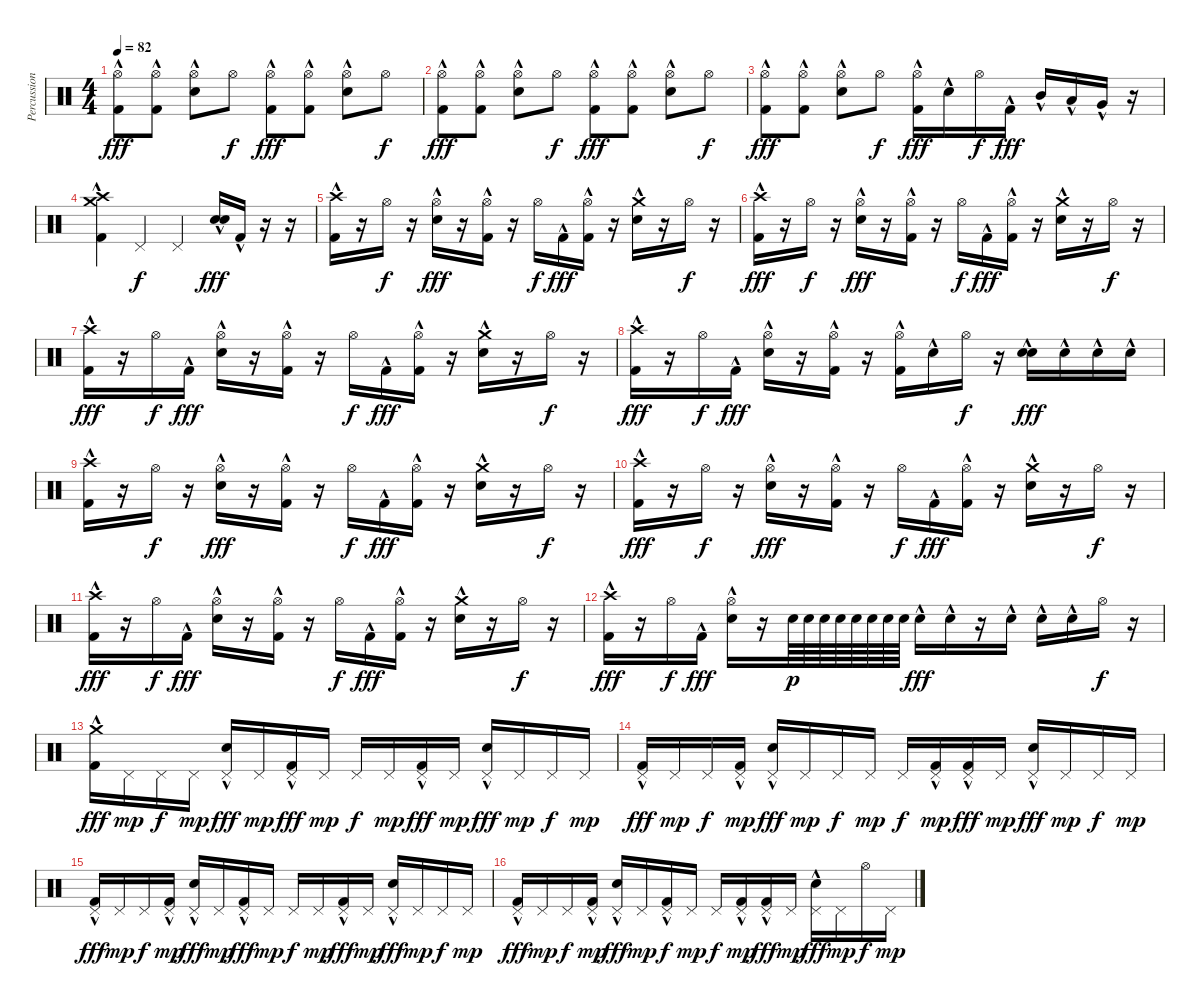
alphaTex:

\track ("Percussion" "Percussion") {instrument percussion}
\staff {score}
\articulation defaults
\ts (4 4)
\tempo 82
\clef neutral
\ks c
("Kick (hit) 2"{hac} "Hi-Hat (open)").8{dy fff} ("Kick (hit) 2"{hac} "Hi-Hat (open)").8 ("Electric Snare (hit)"{hac} "Hi-Hat (open)").8 "Hi-Hat (open)".8{dy f} ("Kick (hit) 2"{hac} "Hi-Hat (open)").8{dy fff} ("Kick (hit) 2"{hac} "Hi-Hat (open)").8 ("Electric Snare (hit)"{hac} "Hi-Hat (open)").8 "Hi-Hat (open)".8{dy f} |
("Kick (hit) 2"{hac} "Hi-Hat (open)").8{dy fff} ("Kick (hit) 2"{hac} "Hi-Hat (open)").8 ("Electric Snare (hit)"{hac} "Hi-Hat (open)").8 "Hi-Hat (open)".8{dy f} ("Kick (hit) 2"{hac} "Hi-Hat (open)").8{dy fff} ("Kick (hit) 2"{hac} "Hi-Hat (open)").8 ("Electric Snare (hit)"{hac} "Hi-Hat (open)").8 "Hi-Hat (open)".8{dy f} |
("Kick (hit) 2"{hac} "Hi-Hat (open)").8{dy fff} ("Kick (hit) 2"{hac} "Hi-Hat (open)").8 ("Electric Snare (hit)"{hac} "Hi-Hat (open)").8 "Hi-Hat (open)".8{dy f} ("Kick (hit) 2"{hac} "Hi-Hat (open)").16{dy fff} "Electric Snare (hit)"{hac}.16 "Hi-Hat (open)".16{dy f} "Kick (hit) 2"{hac}.16{dy fff} "Mid Tom (hit)"{hac}.16 "Low Tom (hit)"{hac}.16 "Very Low Tom (hit)"{hac}.16 r.16 |
("Kick (hit) 2"{hac} "Crash high (hit)" "Crash medium (hit)").4 "Pedal Hi-Hat (hit)".4{dy f} "Pedal Hi-Hat (hit)".4 ("Electric Snare (hit)"{hac} "Electric Snare (hit)"{hac}).16{bd 240 dy fff} "Kick (hit) 2"{hac}.16 r.16 r.16 |
("Kick (hit) 2"{hac} "Crash high (hit)").16 r.16 "Hi-Hat (open)".16{dy f} r.16 ("Electric Snare (hit)"{hac} "Hi-Hat (open)").16{dy fff} r.16 ("Kick (hit) 2"{hac} "Hi-Hat (open)").16 r.16 "Hi-Hat (open)".16{dy f} "Kick (hit) 2"{hac}.16{dy fff} ("Kick (hit) 2"{hac} "Hi-Hat (open)").16 r.16 ("Electric Snare (hit)"{hac} "Crash medium (hit)").16 r.16 "Hi-Hat (open)".16{dy f} r.16 |
("Kick (hit) 2"{hac} "Crash high (hit)").16{dy fff} r.16 "Hi-Hat (open)".16{dy f} r.16 ("Electric Snare (hit)"{hac} "Hi-Hat (open)").16{dy fff} r.16 ("Kick (hit) 2"{hac} "Hi-Hat (open)").16 r.16 "Hi-Hat (open)".16{dy f} "Kick (hit) 2"{hac}.16{dy fff} ("Kick (hit) 2"{hac} "Hi-Hat (open)").16 r.16 ("Electric Snare (hit)"{hac} "Crash medium (hit)").16 r.16 "Hi-Hat (open)".16{dy f} r.16 |
("Kick (hit) 2"{hac} "Crash high (hit)").16{dy fff} r.16 "Hi-Hat (open)".16{dy f} "Kick (hit) 2"{hac}.16{dy fff} ("Electric Snare (hit)"{hac} "Hi-Hat (open)").16 r.16 ("Kick (hit) 2"{hac} "Hi-Hat (open)").16 r.16 "Hi-Hat (open)".16{dy f} "Kick (hit) 2"{hac}.16{dy fff} ("Kick (hit) 2"{hac} "Hi-Hat (open)").16 r.16 ("Electric Snare (hit)"{hac} "Crash medium (hit)").16 r.16 "Hi-Hat (open)".16{dy f} r.16 |
("Kick (hit) 2"{hac} "Crash high (hit)").16{dy fff} r.16 "Hi-Hat (open)".16{dy f} "Kick (hit) 2"{hac}.16{dy fff} ("Electric Snare (hit)"{hac} "Hi-Hat (open)").16 r.16 ("Kick (hit) 2"{hac} "Hi-Hat (open)").16 r.16 ("Kick (hit) 2"{hac} "Hi-Hat (open)").16 "Electric Snare (hit)"{hac}.16 "Hi-Hat (open)".16{dy f} r.16 ("Electric Snare (hit)"{hac} "Electric Snare (hit)"{hac}).16{bd 240 dy fff} "Electric Snare (hit)"{hac}.16 "Electric Snare (hit)"{hac}.16 "Electric Snare (hit)"{hac}.16 |
("Kick (hit) 2"{hac} "Crash high (hit)").16 r.16 "Hi-Hat (open)".16{dy f} r.16 ("Electric Snare (hit)"{hac} "Hi-Hat (open)").16{dy fff} r.16 ("Kick (hit) 2"{hac} "Hi-Hat (open)").16 r.16 "Hi-Hat (open)".16{dy f} "Kick (hit) 2"{hac}.16{dy fff} ("Kick (hit) 2"{hac} "Hi-Hat (open)").16 r.16 ("Electric Snare (hit)"{hac} "Crash medium (hit)").16 r.16 "Hi-Hat (open)".16{dy f} r.16 |
("Kick (hit) 2"{hac} "Crash high (hit)").16{dy fff} r.16 "Hi-Hat (open)".16{dy f} r.16 ("Electric Snare (hit)"{hac} "Hi-Hat (open)").16{dy fff} r.16 ("Kick (hit) 2"{hac} "Hi-Hat (open)").16 r.16 "Hi-Hat (open)".16{dy f} "Kick (hit) 2"{hac}.16{dy fff} ("Kick (hit) 2"{hac} "Hi-Hat (open)").16 r.16 ("Electric Snare (hit)"{hac} "Crash medium (hit)").16 r.16 "Hi-Hat (open)".16{dy f} r.16 |
("Kick (hit) 2"{hac} "Crash high (hit)").16{dy fff} r.16 "Hi-Hat (open)".16{dy f} "Kick (hit) 2"{hac}.16{dy fff} ("Electric Snare (hit)"{hac} "Hi-Hat (open)").16 r.16 ("Kick (hit) 2"{hac} "Hi-Hat (open)").16 r.16 "Hi-Hat (open)".16{dy f} "Kick (hit) 2"{hac}.16{dy fff} ("Kick (hit) 2"{hac} "Hi-Hat (open)").16 r.16 ("Electric Snare (hit)"{hac} "Crash medium (hit)").16 r.16 "Hi-Hat (open)".16{dy f} r.16 |
("Kick (hit) 2"{hac} "Crash high (hit)").16{dy fff} r.16 "Hi-Hat (open)".16{dy f} "Kick (hit) 2"{hac}.16{dy fff} ("Electric Snare (hit)"{hac} "Hi-Hat (open)").16 r.16 "Electric Snare (hit)".64{dy p} "Electric Snare (hit)".64 "Electric Snare (hit)".64 "Electric Snare (hit)".64 "Electric Snare (hit)".64 "Electric Snare (hit)".64 "Electric Snare (hit)".64 "Electric Snare (hit)".64 "Electric Snare (hit)"{hac}.16{dy fff} "Electric Snare (hit)"{hac}.16 r.16 "Electric Snare (hit)"{hac}.16 "Electric Snare (hit)"{hac}.16 "Electric Snare (hit)"{hac}.16 "Hi-Hat (open)".16{dy f} r.16 |
("Kick (hit) 2"{hac} "Crash medium (hit)").16{dy fff} "Pedal Hi-Hat (hit)".16{dy mp} "Pedal Hi-Hat (hit)".16{dy f} "Pedal Hi-Hat (hit)".16{dy mp} ("Electric Snare (hit)"{hac} "Pedal Hi-Hat (hit)").16{dy fff} "Pedal Hi-Hat (hit)".16{dy mp} ("Kick (hit) 2"{hac} "Pedal Hi-Hat (hit)").16{dy fff} "Pedal Hi-Hat (hit)".16{dy mp} "Pedal Hi-Hat (hit)".16{dy f} "Pedal Hi-Hat (hit)".16{dy mp} ("Kick (hit) 2"{hac} "Pedal Hi-Hat (hit)").16{dy fff} "Pedal Hi-Hat (hit)".16{dy mp} ("Electric Snare (hit)"{hac} "Pedal Hi-Hat (hit)").16{dy fff} "Pedal Hi-Hat (hit)".16{dy mp} "Pedal Hi-Hat (hit)".16{dy f} "Pedal Hi-Hat (hit)".16{dy mp} |
("Kick (hit) 2"{hac} "Pedal Hi-Hat (hit)").16{dy fff} "Pedal Hi-Hat (hit)".16{dy mp} "Pedal Hi-Hat (hit)".16{dy f} ("Kick (hit) 2"{hac} "Pedal Hi-Hat (hit)").16{dy mp} ("Electric Snare (hit)"{hac} "Pedal Hi-Hat (hit)").16{dy fff} "Pedal Hi-Hat (hit)".16{dy mp} "Pedal Hi-Hat (hit)".16{dy f} "Pedal Hi-Hat (hit)".16{dy mp} "Pedal Hi-Hat (hit)".16{dy f} ("Kick (hit) 2"{hac} "Pedal Hi-Hat (hit)").16{dy mp} ("Kick (hit) 2"{hac} "Pedal Hi-Hat (hit)").16{dy fff} "Pedal Hi-Hat (hit)".16{dy mp} ("Electric Snare (hit)"{hac} "Pedal Hi-Hat (hit)").16{dy fff} "Pedal Hi-Hat (hit)".16{dy mp} "Pedal Hi-Hat (hit)".16{dy f} "Pedal Hi-Hat (hit)".16{dy mp} |
("Kick (hit) 2"{hac} "Pedal Hi-Hat (hit)").16{dy fff} "Pedal Hi-Hat (hit)".16{dy mp} "Pedal Hi-Hat (hit)".16{dy f} ("Kick (hit) 2"{hac} "Pedal Hi-Hat (hit)").16{dy mp} ("Electric Snare (hit)"{hac} "Pedal Hi-Hat (hit)").16{dy fff} "Pedal Hi-Hat (hit)".16{dy mp} ("Kick (hit) 2"{hac} "Pedal Hi-Hat (hit)").16{dy fff} "Pedal Hi-Hat (hit)".16{dy mp} "Pedal Hi-Hat (hit)".16{dy f} "Pedal Hi-Hat (hit)".16{dy mp} ("Kick (hit) 2"{hac} "Pedal Hi-Hat (hit)").16{dy fff} "Pedal Hi-Hat (hit)".16{dy mp} ("Electric Snare (hit)"{hac} "Pedal Hi-Hat (hit)").16{dy fff} "Pedal Hi-Hat (hit)".16{dy mp} "Pedal Hi-Hat (hit)".16{dy f} "Pedal Hi-Hat (hit)".16{dy mp} |
("Kick (hit) 2"{hac} "Pedal Hi-Hat (hit)").16{dy fff} "Pedal Hi-Hat (hit)".16{dy mp} "Pedal Hi-Hat (hit)".16{dy f} ("Kick (hit) 2"{hac} "Pedal Hi-Hat (hit)").16{dy mp} ("Electric Snare (hit)"{hac} "Pedal Hi-Hat (hit)").16{dy fff} "Pedal Hi-Hat (hit)".16{dy mp} ("Kick (hit) 2"{hac} "Pedal Hi-Hat (hit)").16{dy f} "Pedal Hi-Hat (hit)".16{dy mp} "Pedal Hi-Hat (hit)".16{dy f} ("Kick (hit) 2"{hac} "Pedal Hi-Hat (hit)").16{dy mp} ("Kick (hit) 2"{hac} "Pedal Hi-Hat (hit)").16{dy fff} "Pedal Hi-Hat (hit)".16{dy mp} ("Electric Snare (hit)"{hac} "Pedal Hi-Hat (hit)").16{dy fff} "Pedal Hi-Hat (hit)".16{dy mp} "Hi-Hat (open)".16{dy f} "Pedal Hi-Hat (hit)".16{dy mp}
